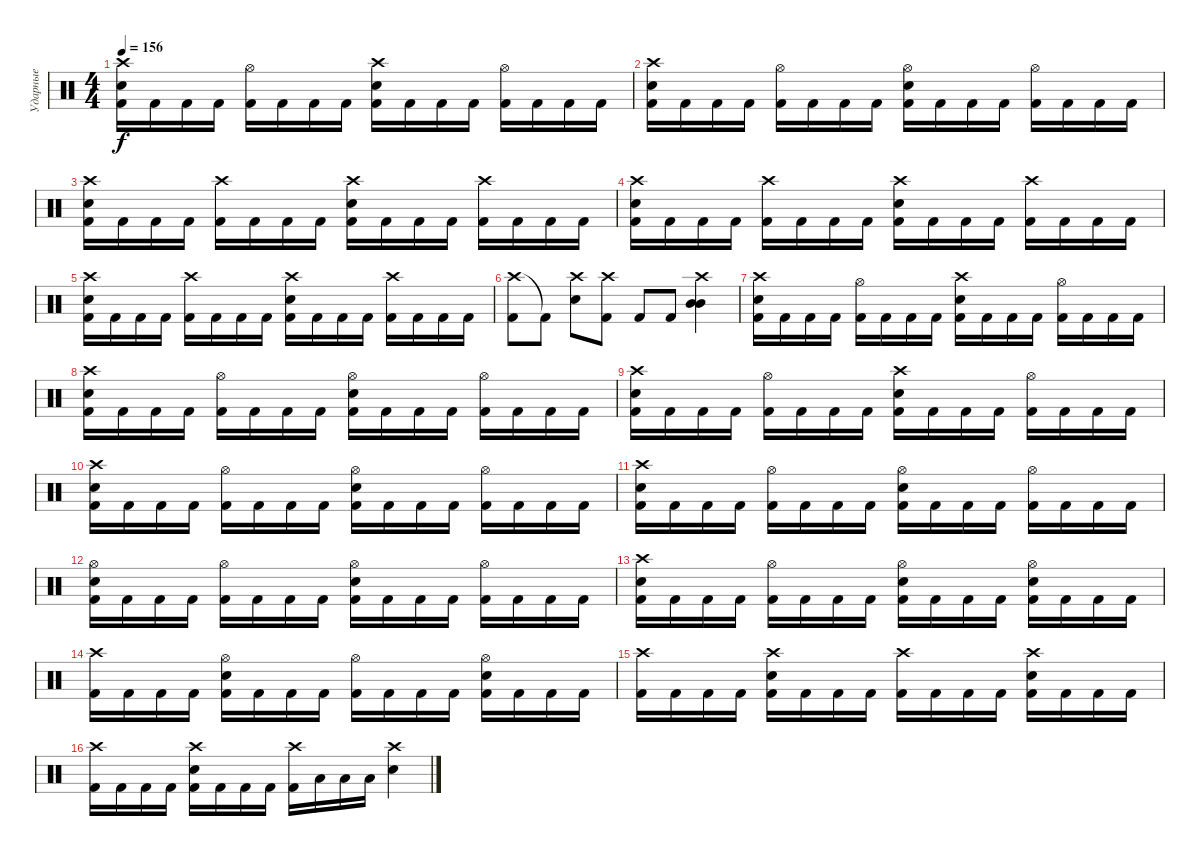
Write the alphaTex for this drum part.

\track ("Ударные" "Ударные") {instrument percussion}
\staff {score}
\articulation defaults
\ts (4 4)
\tempo 156
\clef neutral
\ks c
("Crash high (hit)" "Electric Snare (hit)" "Kick (hit) 2").16{dy f} "Kick (hit) 2".16 "Kick (hit) 2".16 "Kick (hit) 2".16 ("Hi-Hat (open)" "Kick (hit) 2").16 "Kick (hit) 2".16 "Kick (hit) 2".16 "Kick (hit) 2".16 ("Crash high (hit)" "Electric Snare (hit)" "Kick (hit) 2").16 "Kick (hit) 2".16 "Kick (hit) 2".16 "Kick (hit) 2".16 ("Hi-Hat (open)" "Kick (hit) 2").16 "Kick (hit) 2".16 "Kick (hit) 2".16 "Kick (hit) 2".16 |
("Crash high (hit)" "Electric Snare (hit)" "Kick (hit) 2").16 "Kick (hit) 2".16 "Kick (hit) 2".16 "Kick (hit) 2".16 ("Hi-Hat (open)" "Kick (hit) 2").16 "Kick (hit) 2".16 "Kick (hit) 2".16 "Kick (hit) 2".16 ("Hi-Hat (open)" "Electric Snare (hit)" "Kick (hit) 2").16 "Kick (hit) 2".16 "Kick (hit) 2".16 "Kick (hit) 2".16 ("Hi-Hat (open)" "Kick (hit) 2").16 "Kick (hit) 2".16 "Kick (hit) 2".16 "Kick (hit) 2".16 |
("Crash high (hit)" "Electric Snare (hit)" "Kick (hit) 2").16 "Kick (hit) 2".16 "Kick (hit) 2".16 "Kick (hit) 2".16 ("Crash high (hit)" "Kick (hit) 2").16 "Kick (hit) 2".16 "Kick (hit) 2".16 "Kick (hit) 2".16 ("Crash high (hit)" "Electric Snare (hit)" "Kick (hit) 2").16 "Kick (hit) 2".16 "Kick (hit) 2".16 "Kick (hit) 2".16 ("Crash high (hit)" "Kick (hit) 2").16 "Kick (hit) 2".16 "Kick (hit) 2".16 "Kick (hit) 2".16 |
("Crash high (hit)" "Electric Snare (hit)" "Kick (hit) 2").16 "Kick (hit) 2".16 "Kick (hit) 2".16 "Kick (hit) 2".16 ("Crash high (hit)" "Kick (hit) 2").16 "Kick (hit) 2".16 "Kick (hit) 2".16 "Kick (hit) 2".16 ("Crash high (hit)" "Electric Snare (hit)" "Kick (hit) 2").16 "Kick (hit) 2".16 "Kick (hit) 2".16 "Kick (hit) 2".16 ("Crash high (hit)" "Kick (hit) 2").16 "Kick (hit) 2".16 "Kick (hit) 2".16 "Kick (hit) 2".16 |
("Crash high (hit)" "Electric Snare (hit)" "Kick (hit) 2").16 "Kick (hit) 2".16 "Kick (hit) 2".16 "Kick (hit) 2".16 ("Crash high (hit)" "Kick (hit) 2").16 "Kick (hit) 2".16 "Kick (hit) 2".16 "Kick (hit) 2".16 ("Crash high (hit)" "Electric Snare (hit)" "Kick (hit) 2").16 "Kick (hit) 2".16 "Kick (hit) 2".16 "Kick (hit) 2".16 ("Crash high (hit)" "Kick (hit) 2").16 "Kick (hit) 2".16 "Kick (hit) 2".16 "Kick (hit) 2".16 |
("Crash high (hit)" "Kick (hit) 2").8 "Kick (hit) 2"{t}.8 ("Crash high (hit)" "Electric Snare (hit)").8 ("Crash high (hit)" "Kick (hit) 2").8 "Kick (hit) 2".8 "Kick (hit) 2".8 ("Crash high (hit)" "Mid Tom (hit)" "Mid Tom (hit)").4 |
("Crash high (hit)" "Electric Snare (hit)" "Kick (hit) 2").16 "Kick (hit) 2".16 "Kick (hit) 2".16 "Kick (hit) 2".16 ("Hi-Hat (open)" "Kick (hit) 2").16 "Kick (hit) 2".16 "Kick (hit) 2".16 "Kick (hit) 2".16 ("Crash high (hit)" "Electric Snare (hit)" "Kick (hit) 2").16 "Kick (hit) 2".16 "Kick (hit) 2".16 "Kick (hit) 2".16 ("Hi-Hat (open)" "Kick (hit) 2").16 "Kick (hit) 2".16 "Kick (hit) 2".16 "Kick (hit) 2".16 |
("Crash high (hit)" "Electric Snare (hit)" "Kick (hit) 2").16 "Kick (hit) 2".16 "Kick (hit) 2".16 "Kick (hit) 2".16 ("Hi-Hat (open)" "Kick (hit) 2").16 "Kick (hit) 2".16 "Kick (hit) 2".16 "Kick (hit) 2".16 ("Hi-Hat (open)" "Electric Snare (hit)" "Kick (hit) 2").16 "Kick (hit) 2".16 "Kick (hit) 2".16 "Kick (hit) 2".16 ("Hi-Hat (open)" "Kick (hit) 2").16 "Kick (hit) 2".16 "Kick (hit) 2".16 "Kick (hit) 2".16 |
("Crash high (hit)" "Electric Snare (hit)" "Kick (hit) 2").16 "Kick (hit) 2".16 "Kick (hit) 2".16 "Kick (hit) 2".16 ("Hi-Hat (open)" "Kick (hit) 2").16 "Kick (hit) 2".16 "Kick (hit) 2".16 "Kick (hit) 2".16 ("Crash high (hit)" "Electric Snare (hit)" "Kick (hit) 2").16 "Kick (hit) 2".16 "Kick (hit) 2".16 "Kick (hit) 2".16 ("Hi-Hat (open)" "Kick (hit) 2").16 "Kick (hit) 2".16 "Kick (hit) 2".16 "Kick (hit) 2".16 |
("Crash high (hit)" "Electric Snare (hit)" "Kick (hit) 2").16 "Kick (hit) 2".16 "Kick (hit) 2".16 "Kick (hit) 2".16 ("Hi-Hat (open)" "Kick (hit) 2").16 "Kick (hit) 2".16 "Kick (hit) 2".16 "Kick (hit) 2".16 ("Hi-Hat (open)" "Electric Snare (hit)" "Kick (hit) 2").16 "Kick (hit) 2".16 "Kick (hit) 2".16 "Kick (hit) 2".16 ("Hi-Hat (open)" "Kick (hit) 2").16 "Kick (hit) 2".16 "Kick (hit) 2".16 "Kick (hit) 2".16 |
("Crash high (hit)" "Electric Snare (hit)" "Kick (hit) 2").16 "Kick (hit) 2".16 "Kick (hit) 2".16 "Kick (hit) 2".16 ("Hi-Hat (open)" "Kick (hit) 2").16 "Kick (hit) 2".16 "Kick (hit) 2".16 "Kick (hit) 2".16 ("Hi-Hat (open)" "Electric Snare (hit)" "Kick (hit) 2").16 "Kick (hit) 2".16 "Kick (hit) 2".16 "Kick (hit) 2".16 ("Hi-Hat (open)" "Kick (hit) 2").16 "Kick (hit) 2".16 "Kick (hit) 2".16 "Kick (hit) 2".16 |
("Hi-Hat (open)" "Electric Snare (hit)" "Kick (hit) 2").16 "Kick (hit) 2".16 "Kick (hit) 2".16 "Kick (hit) 2".16 ("Hi-Hat (open)" "Kick (hit) 2").16 "Kick (hit) 2".16 "Kick (hit) 2".16 "Kick (hit) 2".16 ("Hi-Hat (open)" "Electric Snare (hit)" "Kick (hit) 2").16 "Kick (hit) 2".16 "Kick (hit) 2".16 "Kick (hit) 2".16 ("Hi-Hat (open)" "Kick (hit) 2").16 "Kick (hit) 2".16 "Kick (hit) 2".16 "Kick (hit) 2".16 |
("Crash high (hit)" "Electric Snare (hit)" "Kick (hit) 2").16 "Kick (hit) 2".16 "Kick (hit) 2".16 "Kick (hit) 2".16 ("Hi-Hat (open)" "Kick (hit) 2").16 "Kick (hit) 2".16 "Kick (hit) 2".16 "Kick (hit) 2".16 ("Hi-Hat (open)" "Electric Snare (hit)" "Kick (hit) 2").16 "Kick (hit) 2".16 "Kick (hit) 2".16 "Kick (hit) 2".16 ("Hi-Hat (open)" "Electric Snare (hit)" "Kick (hit) 2").16 "Kick (hit) 2".16 "Kick (hit) 2".16 "Kick (hit) 2".16 |
("Crash high (hit)" "Kick (hit) 2").16 "Kick (hit) 2".16 "Kick (hit) 2".16 "Kick (hit) 2".16 ("Hi-Hat (open)" "Electric Snare (hit)" "Kick (hit) 2").16 "Kick (hit) 2".16 "Kick (hit) 2".16 "Kick (hit) 2".16 ("Hi-Hat (open)" "Kick (hit) 2").16 "Kick (hit) 2".16 "Kick (hit) 2".16 "Kick (hit) 2".16 ("Hi-Hat (open)" "Electric Snare (hit)" "Kick (hit) 2").16 "Kick (hit) 2".16 "Kick (hit) 2".16 "Kick (hit) 2".16 |
("Crash high (hit)" "Kick (hit) 2").16 "Kick (hit) 2".16 "Kick (hit) 2".16 "Kick (hit) 2".16 ("Crash high (hit)" "Electric Snare (hit)" "Kick (hit) 2").16 "Kick (hit) 2".16 "Kick (hit) 2".16 "Kick (hit) 2".16 ("Crash high (hit)" "Kick (hit) 2").16 "Kick (hit) 2".16 "Kick (hit) 2".16 "Kick (hit) 2".16 ("Crash high (hit)" "Electric Snare (hit)" "Kick (hit) 2").16 "Kick (hit) 2".16 "Kick (hit) 2".16 "Kick (hit) 2".16 |
("Crash high (hit)" "Kick (hit) 2").16 "Kick (hit) 2".16 "Kick (hit) 2".16 "Kick (hit) 2".16 ("Crash high (hit)" "Electric Snare (hit)" "Kick (hit) 2").16 "Kick (hit) 2".16 "Kick (hit) 2".16 "Kick (hit) 2".16 ("Crash high (hit)" "Kick (hit) 2").16 "Low Tom (hit)".16 "Low Tom (hit)".16 "Low Tom (hit)".16 ("Crash high (hit)" "Electric Snare (hit)").4
